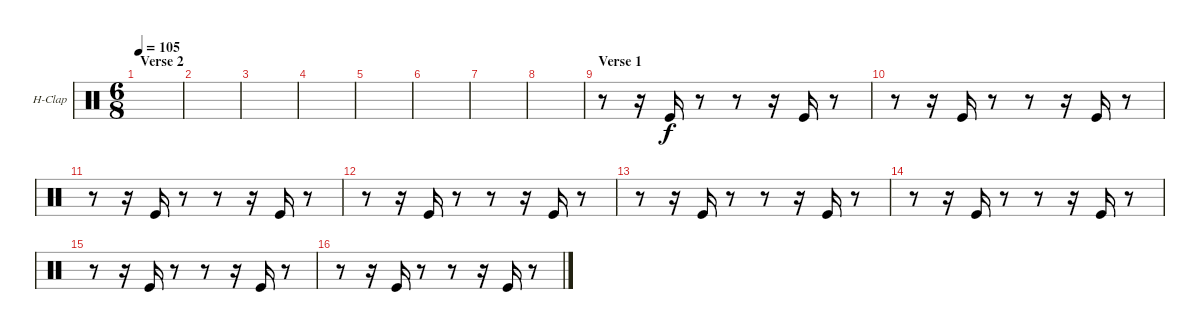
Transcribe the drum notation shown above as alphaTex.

\defaultSystemsLayout 4
\bracketExtendMode nobrackets
\firstSystemTrackNameOrientation horizontal
\otherSystemsTrackNameOrientation horizontal
\track ("Hand Clap" "H-Clap") {instrument percussion}
\staff {score}
\articulation defaults
\ts (6 8)
\section ("" "Verse 2")
\tempo 105
\clef neutral
\ks c
|
|
|
|
|
|
|
|
\section ("" "Verse 1")
r.8 r.16 "Kick (hit)".16 r.8 r.8 r.16 "Kick (hit)".16 r.8 |
r.8 r.16 "Kick (hit)".16 r.8 r.8 r.16 "Kick (hit)".16 r.8 |
r.8 r.16 "Kick (hit)".16 r.8 r.8 r.16 "Kick (hit)".16 r.8 |
r.8 r.16 "Kick (hit)".16 r.8 r.8 r.16 "Kick (hit)".16 r.8 |
r.8 r.16 "Kick (hit)".16 r.8 r.8 r.16 "Kick (hit)".16 r.8 |
r.8 r.16 "Kick (hit)".16 r.8 r.8 r.16 "Kick (hit)".16 r.8 |
r.8 r.16 "Kick (hit)".16 r.8 r.8 r.16 "Kick (hit)".16 r.8 |
r.8 r.16 "Kick (hit)".16 r.8 r.8 r.16 "Kick (hit)".16 r.8
